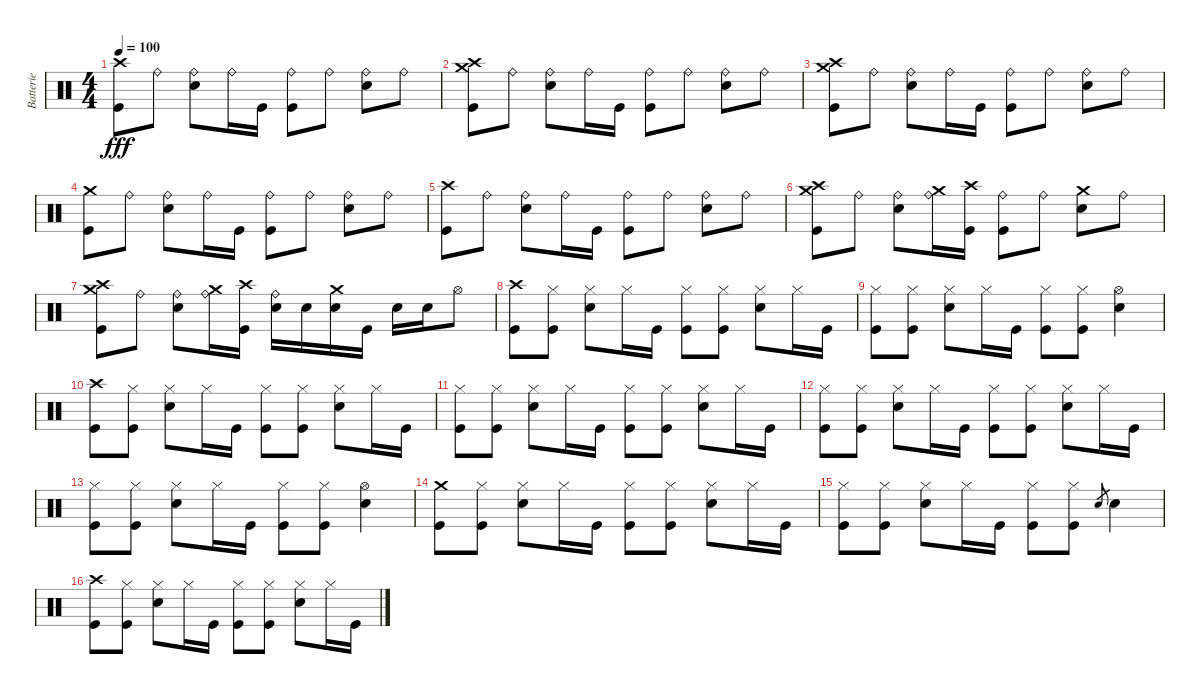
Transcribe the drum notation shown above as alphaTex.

\track ("Batterie" "Batterie") {instrument percussion}
\staff {score}
\articulation defaults
\ts (4 4)
\tempo 100
\clef neutral
\ks c
("Crash high (hit)" "Kick (hit)").8{dy fff} "Ride (bell)".8 ("Ride (bell)" "Electric Snare (hit)").8 "Ride (bell)".16 "Kick (hit)".16 ("Ride (bell)" "Kick (hit)").8 "Ride (bell)".8 ("Ride (bell)" "Electric Snare (hit)").8 "Ride (bell)".8 |
("Crash high (hit)" "Kick (hit)" "Crash medium (hit)").8 "Ride (bell)".8 ("Ride (bell)" "Electric Snare (hit)").8 "Ride (bell)".16 "Kick (hit)".16 ("Ride (bell)" "Kick (hit)").8 "Ride (bell)".8 ("Ride (bell)" "Electric Snare (hit)").8 "Ride (bell)".8 |
("Crash high (hit)" "Kick (hit)" "Crash medium (hit)").8 "Ride (bell)".8 ("Ride (bell)" "Electric Snare (hit)").8 "Ride (bell)".16 "Kick (hit)".16 ("Ride (bell)" "Kick (hit)").8 "Ride (bell)".8 ("Ride (bell)" "Electric Snare (hit)").8 "Ride (bell)".8 |
("Crash medium (hit)" "Kick (hit)").8 "Ride (bell)".8 ("Ride (bell)" "Electric Snare (hit)").8 "Ride (bell)".16 "Kick (hit)".16 ("Ride (bell)" "Kick (hit)").8 "Ride (bell)".8 ("Ride (bell)" "Electric Snare (hit)").8 "Ride (bell)".8 |
("Crash high (hit)" "Kick (hit)").8 "Ride (bell)".8 ("Ride (bell)" "Electric Snare (hit)").8 "Ride (bell)".16 "Kick (hit)".16 ("Ride (bell)" "Kick (hit)").8 "Ride (bell)".8 ("Ride (bell)" "Electric Snare (hit)").8 "Ride (bell)".8 |
("Crash high (hit)" "Kick (hit)" "Crash medium (hit)").8 "Ride (bell)".8 ("Ride (bell)" "Electric Snare (hit)").8 ("Ride (bell)" "Crash medium (hit)").16 ("Crash high (hit)" "Kick (hit)").16 ("Ride (bell)" "Kick (hit)").8 "Ride (bell)".8 ("Crash medium (hit)" "Electric Snare (hit)").8 "Ride (bell)".8 |
("Crash high (hit)" "Kick (hit)" "Crash medium (hit)").8 "Ride (bell)".8 ("Ride (bell)" "Electric Snare (hit)").8 ("Ride (bell)" "Crash medium (hit)").16 ("Crash high (hit)" "Kick (hit)").16 ("Ride (bell)" "Electric Snare (hit)").16 "Electric Snare (hit)".16 ("Crash medium (hit)" "Electric Snare (hit)").16 "Kick (hit)".16 "Electric Snare (hit)".16 "Electric Snare (hit)".16 "Hi-Hat (open)".8 |
("Crash high (hit)" "Kick (hit)").8 ("Hi-Hat (closed)" "Kick (hit)").8 ("Hi-Hat (closed)" "Electric Snare (hit)").8 "Hi-Hat (closed)".16 "Kick (hit)".16 ("Hi-Hat (closed)" "Kick (hit)").8 ("Hi-Hat (closed)" "Kick (hit)").8 ("Hi-Hat (closed)" "Electric Snare (hit)").8 "Hi-Hat (closed)".16 "Kick (hit)".16 |
("Hi-Hat (closed)" "Kick (hit)").8 ("Hi-Hat (closed)" "Kick (hit)").8 ("Hi-Hat (closed)" "Electric Snare (hit)").8 "Hi-Hat (closed)".16 "Kick (hit)".16 ("Hi-Hat (closed)" "Kick (hit)").8 ("Hi-Hat (closed)" "Kick (hit)").8 ("Hi-Hat (open)" "Electric Snare (hit)").4 |
("Crash high (hit)" "Kick (hit)").8 ("Hi-Hat (closed)" "Kick (hit)").8 ("Hi-Hat (closed)" "Electric Snare (hit)").8 "Hi-Hat (closed)".16 "Kick (hit)".16 ("Hi-Hat (closed)" "Kick (hit)").8 ("Hi-Hat (closed)" "Kick (hit)").8 ("Hi-Hat (closed)" "Electric Snare (hit)").8 "Hi-Hat (closed)".16 "Kick (hit)".16 |
("Hi-Hat (closed)" "Kick (hit)").8 ("Hi-Hat (closed)" "Kick (hit)").8 ("Hi-Hat (closed)" "Electric Snare (hit)").8 "Hi-Hat (closed)".16 "Kick (hit)".16 ("Hi-Hat (closed)" "Kick (hit)").8 ("Hi-Hat (closed)" "Kick (hit)").8 ("Hi-Hat (closed)" "Electric Snare (hit)").8 "Hi-Hat (closed)".16 "Kick (hit)".16 |
("Hi-Hat (closed)" "Kick (hit)").8 ("Hi-Hat (closed)" "Kick (hit)").8 ("Hi-Hat (closed)" "Electric Snare (hit)").8 "Hi-Hat (closed)".16 "Kick (hit)".16 ("Hi-Hat (closed)" "Kick (hit)").8 ("Hi-Hat (closed)" "Kick (hit)").8 ("Hi-Hat (closed)" "Electric Snare (hit)").8 "Hi-Hat (closed)".16 "Kick (hit)".16 |
("Hi-Hat (closed)" "Kick (hit)").8 ("Hi-Hat (closed)" "Kick (hit)").8 ("Hi-Hat (closed)" "Electric Snare (hit)").8 "Hi-Hat (closed)".16 "Kick (hit)".16 ("Hi-Hat (closed)" "Kick (hit)").8 ("Hi-Hat (closed)" "Kick (hit)").8 ("Hi-Hat (open)" "Electric Snare (hit)").4 |
("Crash medium (hit)" "Kick (hit)").8 ("Hi-Hat (closed)" "Kick (hit)").8 ("Hi-Hat (closed)" "Electric Snare (hit)").8 "Hi-Hat (closed)".16 "Kick (hit)".16 ("Hi-Hat (closed)" "Kick (hit)").8 ("Hi-Hat (closed)" "Kick (hit)").8 ("Hi-Hat (closed)" "Electric Snare (hit)").8 "Hi-Hat (closed)".16 "Kick (hit)".16 |
("Hi-Hat (closed)" "Kick (hit)").8 ("Hi-Hat (closed)" "Kick (hit)").8 ("Hi-Hat (closed)" "Electric Snare (hit)").8 "Hi-Hat (closed)".16 "Kick (hit)".16 ("Hi-Hat (closed)" "Kick (hit)").8 ("Hi-Hat (closed)" "Kick (hit)").8 "Electric Snare (hit)".8{gr} "Electric Snare (hit)".4 |
("Crash high (hit)" "Kick (hit)").8 ("Hi-Hat (closed)" "Kick (hit)").8 ("Hi-Hat (closed)" "Electric Snare (hit)").8 "Hi-Hat (closed)".16 "Kick (hit)".16 ("Hi-Hat (closed)" "Kick (hit)").8 ("Hi-Hat (closed)" "Kick (hit)").8 ("Hi-Hat (closed)" "Electric Snare (hit)").8 "Hi-Hat (closed)".16 "Kick (hit)".16
